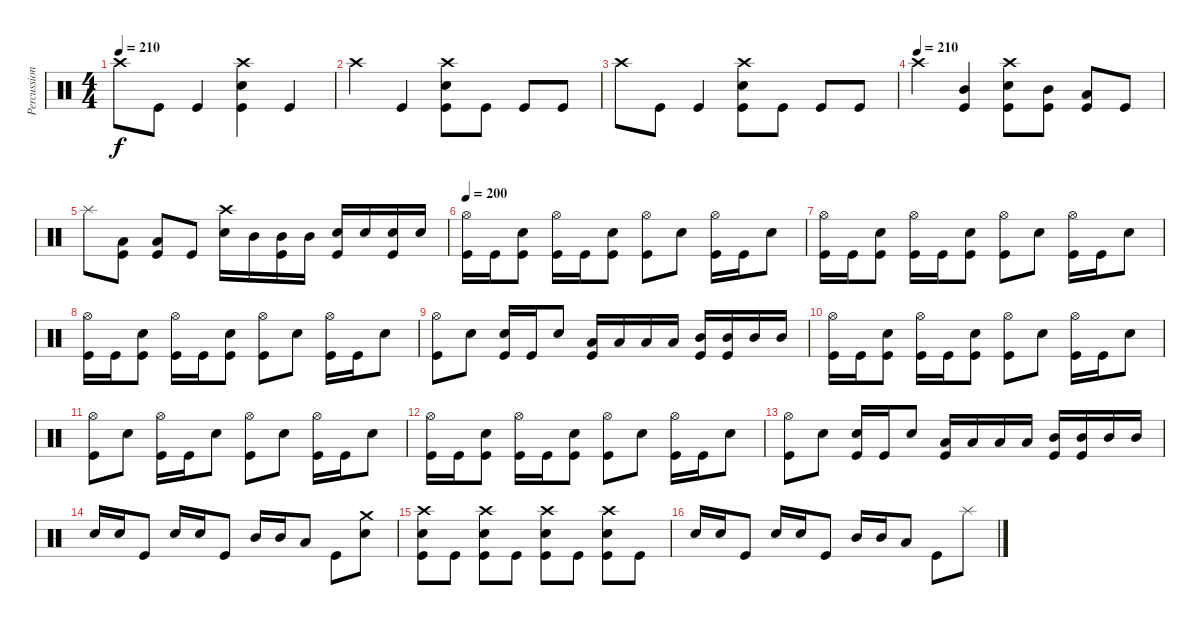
\track ("Percussion" "Percussion") {instrument percussion}
\staff {score}
\articulation defaults
\ts (4 4)
\tempo 210
\clef neutral
\ks c "Crash high (hit)".8{dy f} "Kick (hit)".8 "Kick (hit)".4
("Crash high (hit)" "Snare (hit) 2" "Kick (hit)").4 "Kick (hit)".4 |
"Crash high (hit)".4 "Kick (hit)".4 ("Crash high (hit)" "Snare (hit) 2" "Kick (hit)").8 "Kick (hit)".8 "Kick (hit)".8 "Kick (hit)".8 |
"Crash high (hit)".8 "Kick (hit)".8 "Kick (hit)".4 ("Crash high (hit)" "Snare (hit) 2" "Kick (hit)").8 "Kick (hit)".8 "Kick (hit)".8 "Kick (hit)".8 |
\tempo (210)
"Crash high (hit)".4 ("Mid Tom (hit)" "Kick (hit)").4 ("Crash high (hit)" "Snare (hit) 2" "Kick (hit)").8 ("Mid Tom (hit)" "Kick (hit)").8 ("Low Tom (hit)" "Kick (hit)").8 "Kick (hit)".8 |
"Splash (hit)".8 ("Low Tom (hit)" "Kick (hit)").8 ("Low Tom (hit)" "Kick (hit)").8 "Kick (hit)".8 ("Crash high (hit)" "Snare (hit) 2").16 "Mid Tom (hit)".16 ("Mid Tom (hit)" "Kick (hit)").16 "Mid Tom (hit)".16 ("Snare (hit) 2" "Kick (hit)").16 "Snare (hit) 2".16 ("Snare (hit) 2" "Kick (hit)").16 "Snare (hit) 2".16 |
\tempo 200
("Hi-Hat (open)" "Kick (hit)").16 "Kick (hit)".16 ("Snare (hit) 2" "Kick (hit)").8 ("Hi-Hat (open)" "Kick (hit)").16 "Kick (hit)".16 ("Snare (hit) 2" "Kick (hit)").8 ("Hi-Hat (open)" "Kick (hit)").8 "Snare (hit) 2".8 ("Hi-Hat (open)" "Kick (hit)").16 "Kick (hit)".16 "Snare (hit) 2".8 |
("Hi-Hat (open)" "Kick (hit)").16 "Kick (hit)".16 ("Snare (hit) 2" "Kick (hit)").8 ("Hi-Hat (open)" "Kick (hit)").16 "Kick (hit)".16 ("Snare (hit) 2" "Kick (hit)").8 ("Hi-Hat (open)" "Kick (hit)").8 "Snare (hit) 2".8 ("Hi-Hat (open)" "Kick (hit)").16 "Kick (hit)".16 "Snare (hit) 2".8 |
("Hi-Hat (open)" "Kick (hit)").16 "Kick (hit)".16 ("Snare (hit) 2" "Kick (hit)").8 ("Hi-Hat (open)" "Kick (hit)").16 "Kick (hit)".16 ("Snare (hit) 2" "Kick (hit)").8 ("Hi-Hat (open)" "Kick (hit)").8 "Snare (hit) 2".8 ("Hi-Hat (open)" "Kick (hit)").16 "Kick (hit)".16 "Snare (hit) 2".8 |
("Hi-Hat (open)" "Kick (hit)").8 "Snare (hit) 2".8 ("Snare (hit) 2" "Kick (hit)").16 "Kick (hit)".16 "Snare (hit) 2".8 ("Low Tom (hit)" "Kick (hit)").16 "Low Tom (hit)".16 "Low Tom (hit)".16 "Low Tom (hit)".16 ("Mid Tom (hit)" "Kick (hit)").16 ("Mid Tom (hit)" "Kick (hit)").16 "Mid Tom (hit)".16 "Mid Tom (hit)".16 |
("Hi-Hat (open)" "Kick (hit)").16 "Kick (hit)".16 ("Snare (hit) 2" "Kick (hit)").8 ("Hi-Hat (open)" "Kick (hit)").16 "Kick (hit)".16 ("Snare (hit) 2" "Kick (hit)").8 ("Hi-Hat (open)" "Kick (hit)").8 "Snare (hit) 2".8 ("Hi-Hat (open)" "Kick (hit)").16 "Kick (hit)".16 "Snare (hit) 2".8 |
("Hi-Hat (open)" "Kick (hit)").8 "Snare (hit) 2".8 ("Hi-Hat (open)" "Kick (hit)").16 "Kick (hit)".16 "Snare (hit) 2".8 ("Hi-Hat (open)" "Kick (hit)").8 "Snare (hit) 2".8 ("Hi-Hat (open)" "Kick (hit)").16 "Kick (hit)".16 "Snare (hit) 2".8 |
("Hi-Hat (open)" "Kick (hit)").16 "Kick (hit)".16 ("Snare (hit) 2" "Kick (hit)").8 ("Hi-Hat (open)" "Kick (hit)").16 "Kick (hit)".16 ("Snare (hit) 2" "Kick (hit)").8 ("Hi-Hat (open)" "Kick (hit)").8 "Snare (hit) 2".8 ("Hi-Hat (open)" "Kick (hit)").16 "Kick (hit)".16 "Snare (hit) 2".8 |
("Hi-Hat (open)" "Kick (hit)").8 "Snare (hit) 2".8 ("Snare (hit) 2" "Kick (hit)").16 "Kick (hit)".16 "Snare (hit) 2".8 ("Low Tom (hit)" "Kick (hit)").16 "Low Tom (hit)".16 "Low Tom (hit)".16 "Low Tom (hit)".16 ("Mid Tom (hit)" "Kick (hit)").16 ("Mid Tom (hit)" "Kick (hit)").16 "Mid Tom (hit)".16 "Mid Tom (hit)".16 |
"Snare (hit) 2".16 "Snare (hit) 2".16 "Kick (hit)".8 "Snare (hit) 2".16 "Snare (hit) 2".16 "Kick (hit)".8 "Mid Tom (hit)".16 "Mid Tom (hit)".16 "Low Tom (hit)".8 "Kick (hit)".8 ("Crash medium (hit)" "Snare (hit) 2").8 |
("Crash high (hit)" "Snare (hit) 2" "Kick (hit)").8 "Kick (hit)".8 ("Crash high (hit)" "Snare (hit) 2" "Kick (hit)").8 "Kick (hit)".8 ("Crash high (hit)" "Snare (hit) 2" "Kick (hit)").8 "Kick (hit)".8 ("Crash high (hit)" "Snare (hit) 2" "Kick (hit)").8 "Kick (hit)".8 |
"Snare (hit) 2".16 "Snare (hit) 2".16 "Kick (hit)".8 "Snare (hit) 2".16 "Snare (hit) 2".16 "Kick (hit)".8 "Mid Tom (hit)".16 "Mid Tom (hit)".16 "Low Tom (hit)".8 "Kick (hit)".8 "Splash (hit)".8
